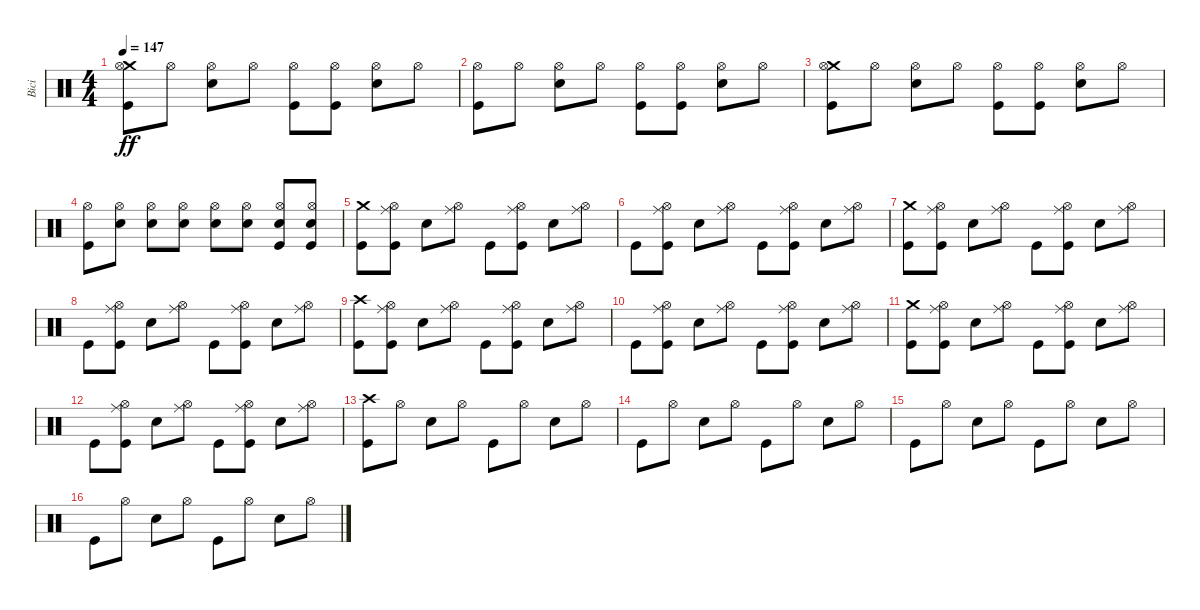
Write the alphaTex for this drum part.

\track ("Bici" "Bici") {instrument percussion}
\staff {score}
\articulation defaults
\ts (4 4)
\tempo 147
\clef neutral
\ks c
("Kick (hit)" "Crash medium (hit)" "Hi-Hat (open)").8{dy ff} "Hi-Hat (open)".8 ("Snare (hit) 2" "Hi-Hat (open)").8 "Hi-Hat (open)".8 ("Kick (hit)" "Hi-Hat (open)").8 ("Kick (hit)" "Hi-Hat (open)").8 ("Snare (hit) 2" "Hi-Hat (open)").8 "Hi-Hat (open)".8 |
("Kick (hit)" "Hi-Hat (open)").8 "Hi-Hat (open)".8 ("Snare (hit) 2" "Hi-Hat (open)").8 "Hi-Hat (open)".8 ("Kick (hit)" "Hi-Hat (open)").8 ("Kick (hit)" "Hi-Hat (open)").8 ("Snare (hit) 2" "Hi-Hat (open)").8 "Hi-Hat (open)".8 |
("Kick (hit)" "Crash medium (hit)" "Hi-Hat (open)").8 "Hi-Hat (open)".8 ("Snare (hit) 2" "Hi-Hat (open)").8 "Hi-Hat (open)".8 ("Kick (hit)" "Hi-Hat (open)").8 ("Kick (hit)" "Hi-Hat (open)").8 ("Snare (hit) 2" "Hi-Hat (open)").8 "Hi-Hat (open)".8 |
("Kick (hit)" "Hi-Hat (open)").8 ("Snare (hit) 2" "Hi-Hat (open)").8 ("Snare (hit) 2" "Hi-Hat (open)").8 ("Snare (hit) 2" "Hi-Hat (open)").8 ("Snare (hit) 2" "Hi-Hat (open)").8 ("Snare (hit) 2" "Hi-Hat (open)").8 ("Kick (hit)" "Snare (hit) 2" "Hi-Hat (open)").8 ("Kick (hit)" "Snare (hit) 2" "Hi-Hat (open)").8 |
("Kick (hit)" "Crash medium (hit)").8 ("Kick (hit)" "Hi-Hat (open)" "Ride (middle)").8 "Snare (hit) 2".8 ("Hi-Hat (open)" "Ride (middle)").8 "Kick (hit)".8 ("Kick (hit)" "Hi-Hat (open)" "Ride (middle)").8 "Snare (hit) 2".8 ("Hi-Hat (open)" "Ride (middle)").8 |
"Kick (hit)".8 ("Kick (hit)" "Hi-Hat (open)" "Ride (middle)").8 "Snare (hit) 2".8 ("Hi-Hat (open)" "Ride (middle)").8 "Kick (hit)".8 ("Kick (hit)" "Hi-Hat (open)" "Ride (middle)").8 "Snare (hit) 2".8 ("Hi-Hat (open)" "Ride (middle)").8 |
("Kick (hit)" "Crash medium (hit)").8 ("Kick (hit)" "Hi-Hat (open)" "Ride (middle)").8 "Snare (hit) 2".8 ("Hi-Hat (open)" "Ride (middle)").8 "Kick (hit)".8 ("Kick (hit)" "Hi-Hat (open)" "Ride (middle)").8 "Snare (hit) 2".8 ("Hi-Hat (open)" "Ride (middle)").8 |
"Kick (hit)".8 ("Kick (hit)" "Hi-Hat (open)" "Ride (middle)").8 "Snare (hit) 2".8 ("Hi-Hat (open)" "Ride (middle)").8 "Kick (hit)".8 ("Kick (hit)" "Hi-Hat (open)" "Ride (middle)").8 "Snare (hit) 2".8 ("Hi-Hat (open)" "Ride (middle)").8 |
("Kick (hit)" "Crash high (hit)").8 ("Kick (hit)" "Hi-Hat (open)" "Ride (middle)").8 "Snare (hit) 2".8 ("Hi-Hat (open)" "Ride (middle)").8 "Kick (hit)".8 ("Kick (hit)" "Hi-Hat (open)" "Ride (middle)").8 "Snare (hit) 2".8 ("Hi-Hat (open)" "Ride (middle)").8 |
"Kick (hit)".8 ("Kick (hit)" "Hi-Hat (open)" "Ride (middle)").8 "Snare (hit) 2".8 ("Hi-Hat (open)" "Ride (middle)").8 "Kick (hit)".8 ("Kick (hit)" "Hi-Hat (open)" "Ride (middle)").8 "Snare (hit) 2".8 ("Hi-Hat (open)" "Ride (middle)").8 |
("Kick (hit)" "Crash medium (hit)").8 ("Kick (hit)" "Hi-Hat (open)" "Ride (middle)").8 "Snare (hit) 2".8 ("Hi-Hat (open)" "Ride (middle)").8 "Kick (hit)".8 ("Kick (hit)" "Hi-Hat (open)" "Ride (middle)").8 "Snare (hit) 2".8 ("Hi-Hat (open)" "Ride (middle)").8 |
"Kick (hit)".8 ("Kick (hit)" "Hi-Hat (open)" "Ride (middle)").8 "Snare (hit) 2".8 ("Hi-Hat (open)" "Ride (middle)").8 "Kick (hit)".8 ("Kick (hit)" "Hi-Hat (open)" "Ride (middle)").8 "Snare (hit) 2".8 ("Hi-Hat (open)" "Ride (middle)").8 |
("Kick (hit)" "Crash high (hit)").8 "Hi-Hat (open)".8 "Snare (hit) 2".8 "Hi-Hat (open)".8 "Kick (hit)".8 "Hi-Hat (open)".8 "Snare (hit) 2".8 "Hi-Hat (open)".8 |
"Kick (hit)".8 "Hi-Hat (open)".8 "Snare (hit) 2".8 "Hi-Hat (open)".8 "Kick (hit)".8 "Hi-Hat (open)".8 "Snare (hit) 2".8 "Hi-Hat (open)".8 |
"Kick (hit)".8 "Hi-Hat (open)".8 "Snare (hit) 2".8 "Hi-Hat (open)".8 "Kick (hit)".8 "Hi-Hat (open)".8 "Snare (hit) 2".8 "Hi-Hat (open)".8 |
"Kick (hit)".8 "Hi-Hat (open)".8 "Snare (hit) 2".8 "Hi-Hat (open)".8 "Kick (hit)".8 "Hi-Hat (open)".8 "Snare (hit) 2".8 "Hi-Hat (open)".8
